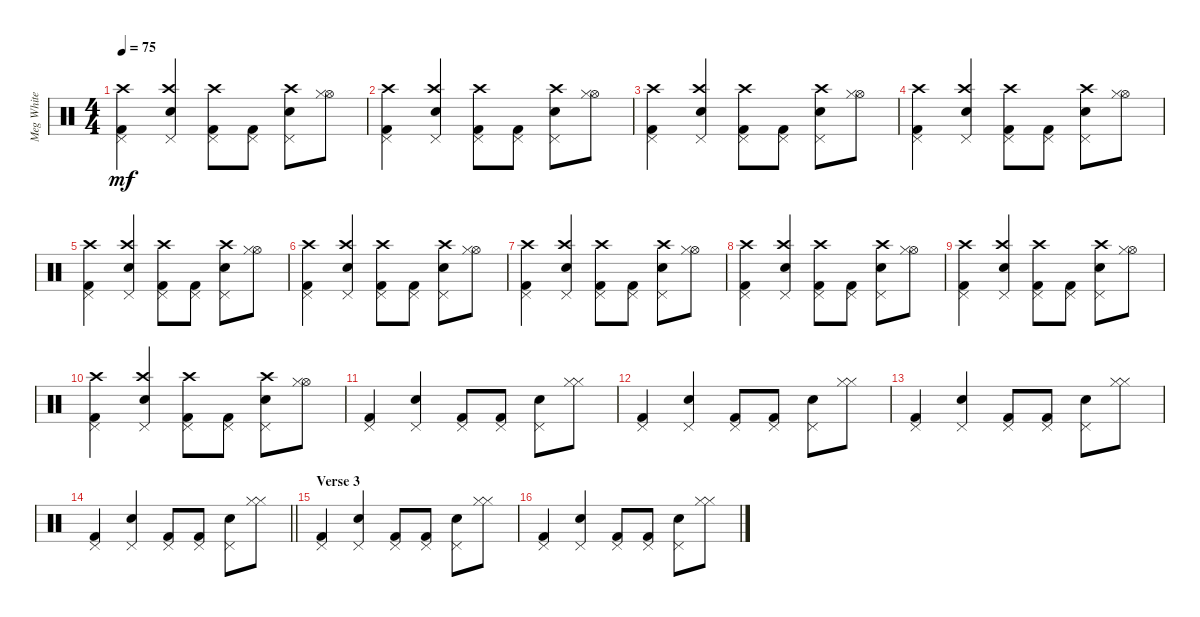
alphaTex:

\track ("Meg White" "Meg White") {instrument percussion}
\staff {score}
\articulation defaults
\ts (4 4)
\tempo 75
\clef neutral
\ks c
("Pedal Hi-Hat (hit)" "Kick (hit) 2" "Crash high (hit)").4{dy mf} ("Pedal Hi-Hat (hit)" "Electric Snare (hit)" "Crash high (hit)").4 ("Pedal Hi-Hat (hit)" "Kick (hit) 2" "Crash high (hit)").8 ("Pedal Hi-Hat (hit)" "Kick (hit) 2").8 ("Pedal Hi-Hat (hit)" "Electric Snare (hit)" "Crash high (hit)").8 ("Hi-Hat (open)" "Hi-Hat (closed)").8 |
("Pedal Hi-Hat (hit)" "Kick (hit) 2" "Crash high (hit)").4 ("Pedal Hi-Hat (hit)" "Electric Snare (hit)" "Crash high (hit)").4 ("Pedal Hi-Hat (hit)" "Kick (hit) 2" "Crash high (hit)").8 ("Pedal Hi-Hat (hit)" "Kick (hit) 2").8 ("Pedal Hi-Hat (hit)" "Electric Snare (hit)" "Crash high (hit)").8 ("Hi-Hat (open)" "Hi-Hat (closed)").8 |
("Pedal Hi-Hat (hit)" "Kick (hit) 2" "Crash high (hit)").4 ("Pedal Hi-Hat (hit)" "Electric Snare (hit)" "Crash high (hit)").4 ("Pedal Hi-Hat (hit)" "Kick (hit) 2" "Crash high (hit)").8 ("Pedal Hi-Hat (hit)" "Kick (hit) 2").8 ("Pedal Hi-Hat (hit)" "Electric Snare (hit)" "Crash high (hit)").8 ("Hi-Hat (open)" "Hi-Hat (closed)").8 |
("Pedal Hi-Hat (hit)" "Kick (hit) 2" "Crash high (hit)").4 ("Pedal Hi-Hat (hit)" "Electric Snare (hit)" "Crash high (hit)").4 ("Pedal Hi-Hat (hit)" "Kick (hit) 2" "Crash high (hit)").8 ("Pedal Hi-Hat (hit)" "Kick (hit) 2").8 ("Pedal Hi-Hat (hit)" "Electric Snare (hit)" "Crash high (hit)").8 ("Hi-Hat (open)" "Hi-Hat (closed)").8 |
("Pedal Hi-Hat (hit)" "Kick (hit) 2" "Crash high (hit)").4 ("Pedal Hi-Hat (hit)" "Electric Snare (hit)" "Crash high (hit)").4 ("Pedal Hi-Hat (hit)" "Kick (hit) 2" "Crash high (hit)").8 ("Pedal Hi-Hat (hit)" "Kick (hit) 2").8 ("Pedal Hi-Hat (hit)" "Electric Snare (hit)" "Crash high (hit)").8 ("Hi-Hat (open)" "Hi-Hat (closed)").8 |
("Pedal Hi-Hat (hit)" "Kick (hit) 2" "Crash high (hit)").4 ("Pedal Hi-Hat (hit)" "Electric Snare (hit)" "Crash high (hit)").4 ("Pedal Hi-Hat (hit)" "Kick (hit) 2" "Crash high (hit)").8 ("Pedal Hi-Hat (hit)" "Kick (hit) 2").8 ("Pedal Hi-Hat (hit)" "Electric Snare (hit)" "Crash high (hit)").8 ("Hi-Hat (open)" "Hi-Hat (closed)").8 |
("Pedal Hi-Hat (hit)" "Kick (hit) 2" "Crash high (hit)").4 ("Pedal Hi-Hat (hit)" "Electric Snare (hit)" "Crash high (hit)").4 ("Pedal Hi-Hat (hit)" "Kick (hit) 2" "Crash high (hit)").8 ("Pedal Hi-Hat (hit)" "Kick (hit) 2").8 ("Pedal Hi-Hat (hit)" "Electric Snare (hit)" "Crash high (hit)").8 ("Hi-Hat (open)" "Hi-Hat (closed)").8 |
("Pedal Hi-Hat (hit)" "Kick (hit) 2" "Crash high (hit)").4 ("Pedal Hi-Hat (hit)" "Electric Snare (hit)" "Crash high (hit)").4 ("Pedal Hi-Hat (hit)" "Kick (hit) 2" "Crash high (hit)").8 ("Pedal Hi-Hat (hit)" "Kick (hit) 2").8 ("Pedal Hi-Hat (hit)" "Electric Snare (hit)" "Crash high (hit)").8 ("Hi-Hat (open)" "Hi-Hat (closed)").8 |
("Pedal Hi-Hat (hit)" "Kick (hit) 2" "Crash high (hit)").4 ("Pedal Hi-Hat (hit)" "Electric Snare (hit)" "Crash high (hit)").4 ("Pedal Hi-Hat (hit)" "Kick (hit) 2" "Crash high (hit)").8 ("Pedal Hi-Hat (hit)" "Kick (hit) 2").8 ("Pedal Hi-Hat (hit)" "Electric Snare (hit)" "Crash high (hit)").8 ("Hi-Hat (open)" "Hi-Hat (closed)").8 |
("Pedal Hi-Hat (hit)" "Kick (hit) 2" "Crash high (hit)").4 ("Pedal Hi-Hat (hit)" "Electric Snare (hit)" "Crash high (hit)").4 ("Pedal Hi-Hat (hit)" "Kick (hit) 2" "Crash high (hit)").8 ("Pedal Hi-Hat (hit)" "Kick (hit) 2").8 ("Pedal Hi-Hat (hit)" "Electric Snare (hit)" "Crash high (hit)").8 ("Hi-Hat (open)" "Hi-Hat (closed)").8 |
("Pedal Hi-Hat (hit)" "Kick (hit) 2").4 ("Pedal Hi-Hat (hit)" "Electric Snare (hit)").4 ("Pedal Hi-Hat (hit)" "Kick (hit) 2").8 ("Pedal Hi-Hat (hit)" "Kick (hit) 2").8 ("Pedal Hi-Hat (hit)" "Electric Snare (hit)").8 ("Hi-Hat (closed)" "Hi-Hat (closed)").8 |
("Pedal Hi-Hat (hit)" "Kick (hit) 2").4 ("Pedal Hi-Hat (hit)" "Electric Snare (hit)").4 ("Pedal Hi-Hat (hit)" "Kick (hit) 2").8 ("Pedal Hi-Hat (hit)" "Kick (hit) 2").8 ("Pedal Hi-Hat (hit)" "Electric Snare (hit)").8 ("Hi-Hat (closed)" "Hi-Hat (closed)").8 |
("Pedal Hi-Hat (hit)" "Kick (hit) 2").4 ("Pedal Hi-Hat (hit)" "Electric Snare (hit)").4 ("Pedal Hi-Hat (hit)" "Kick (hit) 2").8 ("Pedal Hi-Hat (hit)" "Kick (hit) 2").8 ("Pedal Hi-Hat (hit)" "Electric Snare (hit)").8 ("Hi-Hat (closed)" "Hi-Hat (closed)").8 |
\barLineRight lightlight
("Pedal Hi-Hat (hit)" "Kick (hit) 2").4 ("Pedal Hi-Hat (hit)" "Electric Snare (hit)").4 ("Pedal Hi-Hat (hit)" "Kick (hit) 2").8 ("Pedal Hi-Hat (hit)" "Kick (hit) 2").8 ("Pedal Hi-Hat (hit)" "Electric Snare (hit)").8 ("Hi-Hat (closed)" "Hi-Hat (closed)").8 |
\section ("" "Verse 3")
("Pedal Hi-Hat (hit)" "Kick (hit) 2").4 ("Pedal Hi-Hat (hit)" "Electric Snare (hit)").4 ("Pedal Hi-Hat (hit)" "Kick (hit) 2").8 ("Pedal Hi-Hat (hit)" "Kick (hit) 2").8 ("Pedal Hi-Hat (hit)" "Electric Snare (hit)").8 ("Hi-Hat (closed)" "Hi-Hat (closed)").8 |
("Pedal Hi-Hat (hit)" "Kick (hit) 2").4 ("Pedal Hi-Hat (hit)" "Electric Snare (hit)").4 ("Pedal Hi-Hat (hit)" "Kick (hit) 2").8 ("Pedal Hi-Hat (hit)" "Kick (hit) 2").8 ("Pedal Hi-Hat (hit)" "Electric Snare (hit)").8 ("Hi-Hat (closed)" "Hi-Hat (closed)").8
